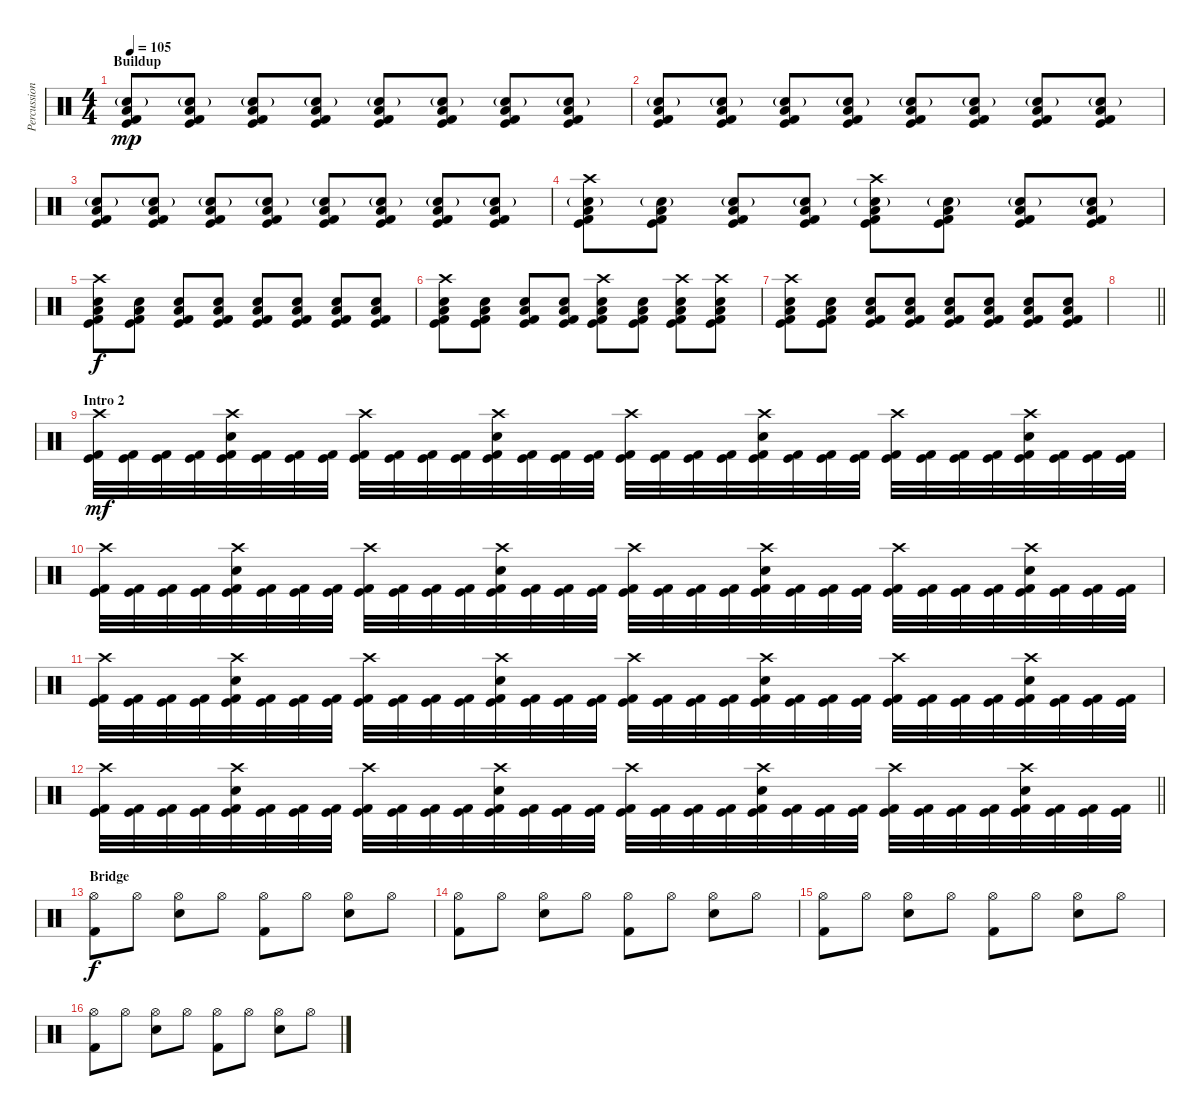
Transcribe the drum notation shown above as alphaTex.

\track ("Percussion" "Percussion") {instrument percussion}
\staff {score}
\articulation defaults
\ts (4 4)
\section ("" "Buildup")
\tempo 105
\clef neutral
\ks c
("Snare (hit) 2"{g} "Low Floor Tom (hit)" "Kick (hit)" "Kick (hit) 2").8{dy mp} ("Snare (hit) 2"{g} "Low Floor Tom (hit)" "Kick (hit)" "Kick (hit) 2").8 ("Snare (hit) 2"{g} "Low Floor Tom (hit)" "Kick (hit)" "Kick (hit) 2").8 ("Snare (hit) 2"{g} "Low Floor Tom (hit)" "Kick (hit)" "Kick (hit) 2").8 ("Snare (hit) 2"{g} "Low Floor Tom (hit)" "Kick (hit)" "Kick (hit) 2").8 ("Snare (hit) 2"{g} "Low Floor Tom (hit)" "Kick (hit)" "Kick (hit) 2").8 ("Snare (hit) 2"{g} "Low Floor Tom (hit)" "Kick (hit)" "Kick (hit) 2").8 ("Snare (hit) 2"{g} "Low Floor Tom (hit)" "Kick (hit)" "Kick (hit) 2").8 |
("Snare (hit) 2"{g} "Low Floor Tom (hit)" "Kick (hit)" "Kick (hit) 2").8 ("Snare (hit) 2"{g} "Low Floor Tom (hit)" "Kick (hit)" "Kick (hit) 2").8 ("Snare (hit) 2"{g} "Low Floor Tom (hit)" "Kick (hit)" "Kick (hit) 2").8 ("Snare (hit) 2"{g} "Low Floor Tom (hit)" "Kick (hit)" "Kick (hit) 2").8 ("Snare (hit) 2"{g} "Low Floor Tom (hit)" "Kick (hit)" "Kick (hit) 2").8 ("Snare (hit) 2"{g} "Low Floor Tom (hit)" "Kick (hit)" "Kick (hit) 2").8 ("Snare (hit) 2"{g} "Low Floor Tom (hit)" "Kick (hit)" "Kick (hit) 2").8 ("Snare (hit) 2"{g} "Low Floor Tom (hit)" "Kick (hit)" "Kick (hit) 2").8 |
("Snare (hit) 2"{g} "Low Floor Tom (hit)" "Kick (hit)" "Kick (hit) 2").8 ("Snare (hit) 2"{g} "Low Floor Tom (hit)" "Kick (hit)" "Kick (hit) 2").8 ("Snare (hit) 2"{g} "Low Floor Tom (hit)" "Kick (hit)" "Kick (hit) 2").8 ("Snare (hit) 2"{g} "Low Floor Tom (hit)" "Kick (hit)" "Kick (hit) 2").8 ("Snare (hit) 2"{g} "Low Floor Tom (hit)" "Kick (hit)" "Kick (hit) 2").8 ("Snare (hit) 2"{g} "Low Floor Tom (hit)" "Kick (hit)" "Kick (hit) 2").8 ("Snare (hit) 2"{g} "Low Floor Tom (hit)" "Kick (hit)" "Kick (hit) 2").8 ("Snare (hit) 2"{g} "Low Floor Tom (hit)" "Kick (hit)" "Kick (hit) 2").8 |
("Crash high (hit)" "Snare (hit) 2"{g} "Low Floor Tom (hit)" "Kick (hit)" "Kick (hit) 2").8 ("Snare (hit) 2"{g} "Low Floor Tom (hit)" "Kick (hit)" "Kick (hit) 2").8 ("Snare (hit) 2"{g} "Low Floor Tom (hit)" "Kick (hit)" "Kick (hit) 2").8 ("Snare (hit) 2"{g} "Low Floor Tom (hit)" "Kick (hit)" "Kick (hit) 2").8 ("Crash high (hit)" "Snare (hit) 2"{g} "Low Floor Tom (hit)" "Kick (hit)" "Kick (hit) 2").8 ("Snare (hit) 2"{g} "Low Floor Tom (hit)" "Kick (hit)" "Kick (hit) 2").8 ("Snare (hit) 2"{g} "Low Floor Tom (hit)" "Kick (hit)" "Kick (hit) 2").8 ("Snare (hit) 2"{g} "Low Floor Tom (hit)" "Kick (hit)" "Kick (hit) 2").8 |
("Crash high (hit)" "Snare (hit) 2" "Low Floor Tom (hit)" "Kick (hit)" "Kick (hit) 2").8{dy f} ("Snare (hit) 2" "Low Floor Tom (hit)" "Kick (hit)" "Kick (hit) 2").8 ("Snare (hit) 2" "Low Floor Tom (hit)" "Kick (hit)" "Kick (hit) 2").8 ("Snare (hit) 2" "Low Floor Tom (hit)" "Kick (hit)" "Kick (hit) 2").8 ("Snare (hit) 2" "Low Floor Tom (hit)" "Kick (hit)" "Kick (hit) 2").8 ("Snare (hit) 2" "Low Floor Tom (hit)" "Kick (hit)" "Kick (hit) 2").8 ("Snare (hit) 2" "Low Floor Tom (hit)" "Kick (hit)" "Kick (hit) 2").8 ("Snare (hit) 2" "Low Floor Tom (hit)" "Kick (hit)" "Kick (hit) 2").8 |
("Crash high (hit)" "Snare (hit) 2" "Low Floor Tom (hit)" "Kick (hit)" "Kick (hit) 2").8 ("Snare (hit) 2" "Low Floor Tom (hit)" "Kick (hit)" "Kick (hit) 2").8 ("Snare (hit) 2" "Low Floor Tom (hit)" "Kick (hit)" "Kick (hit) 2").8 ("Snare (hit) 2" "Low Floor Tom (hit)" "Kick (hit)" "Kick (hit) 2").8 ("Crash high (hit)" "Snare (hit) 2" "Low Floor Tom (hit)" "Kick (hit)" "Kick (hit) 2").8 ("Snare (hit) 2" "Low Floor Tom (hit)" "Kick (hit)" "Kick (hit) 2").8 ("Crash high (hit)" "Snare (hit) 2" "Low Floor Tom (hit)" "Kick (hit)" "Kick (hit) 2").8 ("Crash high (hit)" "Snare (hit) 2" "Low Floor Tom (hit)" "Kick (hit)" "Kick (hit) 2").8 |
("Crash high (hit)" "Snare (hit) 2" "Low Floor Tom (hit)" "Kick (hit)" "Kick (hit) 2").8 ("Snare (hit) 2" "Low Floor Tom (hit)" "Kick (hit)" "Kick (hit) 2").8 ("Snare (hit) 2" "Low Floor Tom (hit)" "Kick (hit)" "Kick (hit) 2").8 ("Snare (hit) 2" "Low Floor Tom (hit)" "Kick (hit)" "Kick (hit) 2").8 ("Snare (hit) 2" "Low Floor Tom (hit)" "Kick (hit)" "Kick (hit) 2").8 ("Snare (hit) 2" "Low Floor Tom (hit)" "Kick (hit)" "Kick (hit) 2").8 ("Snare (hit) 2" "Low Floor Tom (hit)" "Kick (hit)" "Kick (hit) 2").8 ("Snare (hit) 2" "Low Floor Tom (hit)" "Kick (hit)" "Kick (hit) 2").8 |
\barLineRight lightlight
|
\section ("" "Intro 2")
("Crash high (hit)" "Kick (hit)" "Kick (hit) 2").32{dy mf} ("Kick (hit)" "Kick (hit) 2").32 ("Kick (hit)" "Kick (hit) 2").32 ("Kick (hit)" "Kick (hit) 2").32 ("Crash high (hit)" "Snare (hit) 2" "Kick (hit)" "Kick (hit) 2").32 ("Kick (hit)" "Kick (hit) 2").32 ("Kick (hit)" "Kick (hit) 2").32 ("Kick (hit)" "Kick (hit) 2").32 ("Crash high (hit)" "Kick (hit)" "Kick (hit) 2").32 ("Kick (hit)" "Kick (hit) 2").32 ("Kick (hit)" "Kick (hit) 2").32 ("Kick (hit)" "Kick (hit) 2").32 ("Crash high (hit)" "Snare (hit) 2" "Kick (hit)" "Kick (hit) 2").32 ("Kick (hit)" "Kick (hit) 2").32 ("Kick (hit)" "Kick (hit) 2").32 ("Kick (hit)" "Kick (hit) 2").32 ("Crash high (hit)" "Kick (hit)" "Kick (hit) 2").32 ("Kick (hit)" "Kick (hit) 2").32 ("Kick (hit)" "Kick (hit) 2").32 ("Kick (hit)" "Kick (hit) 2").32 ("Crash high (hit)" "Snare (hit) 2" "Kick (hit)" "Kick (hit) 2").32 ("Kick (hit)" "Kick (hit) 2").32 ("Kick (hit)" "Kick (hit) 2").32 ("Kick (hit)" "Kick (hit) 2").32 ("Crash high (hit)" "Kick (hit)" "Kick (hit) 2").32 ("Kick (hit)" "Kick (hit) 2").32 ("Kick (hit)" "Kick (hit) 2").32 ("Kick (hit)" "Kick (hit) 2").32 ("Crash high (hit)" "Snare (hit) 2" "Kick (hit)" "Kick (hit) 2").32 ("Kick (hit)" "Kick (hit) 2").32 ("Kick (hit)" "Kick (hit) 2").32 ("Kick (hit)" "Kick (hit) 2").32 |
("Crash high (hit)" "Kick (hit)" "Kick (hit) 2").32 ("Kick (hit)" "Kick (hit) 2").32 ("Kick (hit)" "Kick (hit) 2").32 ("Kick (hit)" "Kick (hit) 2").32 ("Crash high (hit)" "Snare (hit) 2" "Kick (hit)" "Kick (hit) 2").32 ("Kick (hit)" "Kick (hit) 2").32 ("Kick (hit)" "Kick (hit) 2").32 ("Kick (hit)" "Kick (hit) 2").32 ("Crash high (hit)" "Kick (hit)" "Kick (hit) 2").32 ("Kick (hit)" "Kick (hit) 2").32 ("Kick (hit)" "Kick (hit) 2").32 ("Kick (hit)" "Kick (hit) 2").32 ("Crash high (hit)" "Snare (hit) 2" "Kick (hit)" "Kick (hit) 2").32 ("Kick (hit)" "Kick (hit) 2").32 ("Kick (hit)" "Kick (hit) 2").32 ("Kick (hit)" "Kick (hit) 2").32 ("Crash high (hit)" "Kick (hit)" "Kick (hit) 2").32 ("Kick (hit)" "Kick (hit) 2").32 ("Kick (hit)" "Kick (hit) 2").32 ("Kick (hit)" "Kick (hit) 2").32 ("Crash high (hit)" "Snare (hit) 2" "Kick (hit)" "Kick (hit) 2").32 ("Kick (hit)" "Kick (hit) 2").32 ("Kick (hit)" "Kick (hit) 2").32 ("Kick (hit)" "Kick (hit) 2").32 ("Crash high (hit)" "Kick (hit)" "Kick (hit) 2").32 ("Kick (hit)" "Kick (hit) 2").32 ("Kick (hit)" "Kick (hit) 2").32 ("Kick (hit)" "Kick (hit) 2").32 ("Crash high (hit)" "Snare (hit) 2" "Kick (hit)" "Kick (hit) 2").32 ("Kick (hit)" "Kick (hit) 2").32 ("Kick (hit)" "Kick (hit) 2").32 ("Kick (hit)" "Kick (hit) 2").32 |
("Crash high (hit)" "Kick (hit)" "Kick (hit) 2").32 ("Kick (hit)" "Kick (hit) 2").32 ("Kick (hit)" "Kick (hit) 2").32 ("Kick (hit)" "Kick (hit) 2").32 ("Crash high (hit)" "Snare (hit) 2" "Kick (hit)" "Kick (hit) 2").32 ("Kick (hit)" "Kick (hit) 2").32 ("Kick (hit)" "Kick (hit) 2").32 ("Kick (hit)" "Kick (hit) 2").32 ("Crash high (hit)" "Kick (hit)" "Kick (hit) 2").32 ("Kick (hit)" "Kick (hit) 2").32 ("Kick (hit)" "Kick (hit) 2").32 ("Kick (hit)" "Kick (hit) 2").32 ("Crash high (hit)" "Snare (hit) 2" "Kick (hit)" "Kick (hit) 2").32 ("Kick (hit)" "Kick (hit) 2").32 ("Kick (hit)" "Kick (hit) 2").32 ("Kick (hit)" "Kick (hit) 2").32 ("Crash high (hit)" "Kick (hit)" "Kick (hit) 2").32 ("Kick (hit)" "Kick (hit) 2").32 ("Kick (hit)" "Kick (hit) 2").32 ("Kick (hit)" "Kick (hit) 2").32 ("Crash high (hit)" "Snare (hit) 2" "Kick (hit)" "Kick (hit) 2").32 ("Kick (hit)" "Kick (hit) 2").32 ("Kick (hit)" "Kick (hit) 2").32 ("Kick (hit)" "Kick (hit) 2").32 ("Crash high (hit)" "Kick (hit)" "Kick (hit) 2").32 ("Kick (hit)" "Kick (hit) 2").32 ("Kick (hit)" "Kick (hit) 2").32 ("Kick (hit)" "Kick (hit) 2").32 ("Crash high (hit)" "Snare (hit) 2" "Kick (hit)" "Kick (hit) 2").32 ("Kick (hit)" "Kick (hit) 2").32 ("Kick (hit)" "Kick (hit) 2").32 ("Kick (hit)" "Kick (hit) 2").32 |
\barLineRight lightlight
("Crash high (hit)" "Kick (hit)" "Kick (hit) 2").32 ("Kick (hit)" "Kick (hit) 2").32 ("Kick (hit)" "Kick (hit) 2").32 ("Kick (hit)" "Kick (hit) 2").32 ("Crash high (hit)" "Snare (hit) 2" "Kick (hit)" "Kick (hit) 2").32 ("Kick (hit)" "Kick (hit) 2").32 ("Kick (hit)" "Kick (hit) 2").32 ("Kick (hit)" "Kick (hit) 2").32 ("Crash high (hit)" "Kick (hit)" "Kick (hit) 2").32 ("Kick (hit)" "Kick (hit) 2").32 ("Kick (hit)" "Kick (hit) 2").32 ("Kick (hit)" "Kick (hit) 2").32 ("Crash high (hit)" "Snare (hit) 2" "Kick (hit)" "Kick (hit) 2").32 ("Kick (hit)" "Kick (hit) 2").32 ("Kick (hit)" "Kick (hit) 2").32 ("Kick (hit)" "Kick (hit) 2").32 ("Crash high (hit)" "Kick (hit)" "Kick (hit) 2").32 ("Kick (hit)" "Kick (hit) 2").32 ("Kick (hit)" "Kick (hit) 2").32 ("Kick (hit)" "Kick (hit) 2").32 ("Crash high (hit)" "Snare (hit) 2" "Kick (hit)" "Kick (hit) 2").32 ("Kick (hit)" "Kick (hit) 2").32 ("Kick (hit)" "Kick (hit) 2").32 ("Kick (hit)" "Kick (hit) 2").32 ("Crash high (hit)" "Kick (hit)" "Kick (hit) 2").32 ("Kick (hit)" "Kick (hit) 2").32 ("Kick (hit)" "Kick (hit) 2").32 ("Kick (hit)" "Kick (hit) 2").32 ("Crash high (hit)" "Snare (hit) 2" "Kick (hit)" "Kick (hit) 2").32 ("Kick (hit)" "Kick (hit) 2").32 ("Kick (hit)" "Kick (hit) 2").32 ("Kick (hit)" "Kick (hit) 2").32 |
\section ("" "Bridge")
("Hi-Hat (open)" "Kick (hit) 2").8{dy f} "Hi-Hat (open)".8 ("Hi-Hat (open)" "Snare (hit) 2").8 "Hi-Hat (open)".8 ("Hi-Hat (open)" "Kick (hit) 2").8 "Hi-Hat (open)".8 ("Hi-Hat (open)" "Snare (hit) 2").8 "Hi-Hat (open)".8 |
("Hi-Hat (open)" "Kick (hit) 2").8 "Hi-Hat (open)".8 ("Hi-Hat (open)" "Snare (hit) 2").8 "Hi-Hat (open)".8 ("Hi-Hat (open)" "Kick (hit) 2").8 "Hi-Hat (open)".8 ("Hi-Hat (open)" "Snare (hit) 2").8 "Hi-Hat (open)".8 |
("Hi-Hat (open)" "Kick (hit) 2").8 "Hi-Hat (open)".8 ("Hi-Hat (open)" "Snare (hit) 2").8 "Hi-Hat (open)".8 ("Hi-Hat (open)" "Kick (hit) 2").8 "Hi-Hat (open)".8 ("Hi-Hat (open)" "Snare (hit) 2").8 "Hi-Hat (open)".8 |
("Hi-Hat (open)" "Kick (hit) 2").8 "Hi-Hat (open)".8 ("Hi-Hat (open)" "Snare (hit) 2").8 "Hi-Hat (open)".8 ("Hi-Hat (open)" "Kick (hit) 2").8 "Hi-Hat (open)".8 ("Hi-Hat (open)" "Snare (hit) 2").8 "Hi-Hat (open)".8
